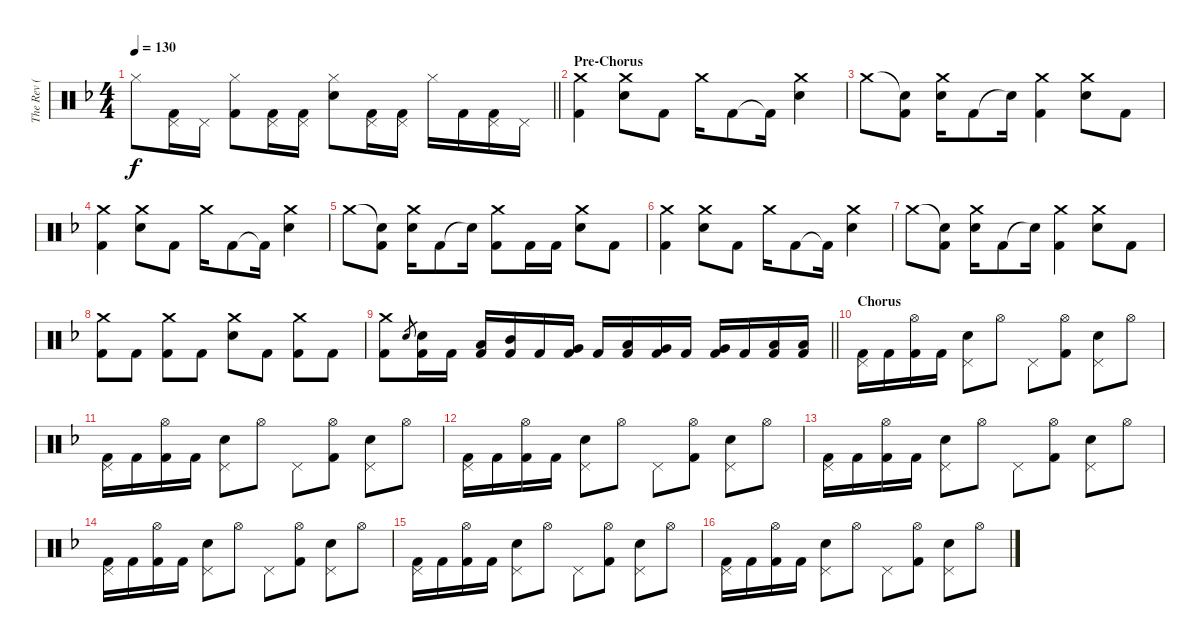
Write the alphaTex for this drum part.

\track ("The Rev ( Drums )" "The Rev ( ") {instrument percussion}
\staff {score}
\articulation defaults
\ts (4 4)
\tempo 130
\clef neutral
\barLineRight lightlight
\ks f "Hi-Hat (closed)".8{dy f}
("Pedal Hi-Hat (hit)" "Kick (hit) 2").16 "Pedal Hi-Hat (hit)".16 ("Hi-Hat (closed)" "Kick (hit) 2").8 ("Pedal Hi-Hat (hit)" "Kick (hit) 2").16 ("Pedal Hi-Hat (hit)" "Kick (hit) 2").16 ("Hi-Hat (closed)" "Snare (hit) 2").8 ("Pedal Hi-Hat (hit)" "Kick (hit) 2").16 ("Pedal Hi-Hat (hit)" "Kick (hit) 2").16 "Hi-Hat (closed)".16 "Kick (hit) 2".16 ("Pedal Hi-Hat (hit)" "Kick (hit) 2").16 "Pedal Hi-Hat (hit)".16 |
\section ("" "Pre-Chorus")
("Crash medium (hit)" "Kick (hit) 2").4 ("Crash medium (hit)" "Snare (hit) 2").8 "Kick (hit) 2".8 "Crash medium (hit)".16 "Kick (hit) 2".8 "Kick (hit) 2"{t}.16 ("Crash medium (hit)" "Snare (hit) 2").4 |
"Crash medium (hit)".8 ("Snare (hit)"{t} "Kick (hit) 2").8 ("Crash medium (hit)" "Snare (hit) 2").16 "Kick (hit) 2".8 "Snare (hit)"{t}.16 ("Crash medium (hit)" "Kick (hit) 2").4 ("Crash medium (hit)" "Snare (hit) 2").8 "Kick (hit) 2".8 |
("Crash medium (hit)" "Kick (hit) 2").4 ("Crash medium (hit)" "Snare (hit) 2").8 "Kick (hit) 2".8 "Crash medium (hit)".16 "Kick (hit) 2".8 "Kick (hit) 2"{t}.16 ("Crash medium (hit)" "Snare (hit) 2").4 |
"Crash medium (hit)".8 ("Snare (hit)"{t} "Kick (hit) 2").8 ("Crash medium (hit)" "Snare (hit) 2").16 "Kick (hit) 2".8 "Snare (hit)"{t}.16 ("Crash medium (hit)" "Kick (hit) 2").8 "Kick (hit) 2".16 "Kick (hit) 2".16 ("Crash medium (hit)" "Snare (hit) 2").8 "Kick (hit) 2".8 |
("Crash medium (hit)" "Kick (hit) 2").4 ("Crash medium (hit)" "Snare (hit) 2").8 "Kick (hit) 2".8 "Crash medium (hit)".16 "Kick (hit) 2".8 "Kick (hit) 2"{t}.16 ("Crash medium (hit)" "Snare (hit) 2").4 |
"Crash medium (hit)".8 ("Snare (hit)"{t} "Kick (hit) 2").8 ("Crash medium (hit)" "Snare (hit) 2").16 "Kick (hit) 2".8 "Snare (hit)"{t}.16 ("Crash medium (hit)" "Kick (hit) 2").4 ("Crash medium (hit)" "Snare (hit) 2").8 "Kick (hit) 2".8 |
("Crash medium (hit)" "Kick (hit) 2").8 "Kick (hit) 2".8 ("Crash medium (hit)" "Kick (hit) 2").8 "Kick (hit) 2".8 ("Crash medium (hit)" "Snare (hit) 2").8 "Kick (hit) 2".8 ("Crash medium (hit)" "Kick (hit) 2").8 "Kick (hit) 2".8 |
\barLineRight lightlight
("Crash medium (hit)" "Kick (hit) 2").8 "Snare (hit) 2".8{gr} ("Snare (hit) 2" "Kick (hit) 2").16 "Kick (hit) 2".16 ("Low Tom (hit)" "Kick (hit) 2").16 ("Mid Tom (hit)" "Kick (hit) 2").16 "Kick (hit) 2".16 ("Very Low Tom (hit)" "Kick (hit) 2").16 "Kick (hit) 2".16 ("Low Floor Tom (hit)" "Kick (hit) 2").16 ("Very Low Tom (hit)" "Kick (hit) 2").16 "Kick (hit) 2".16 ("Very Low Tom (hit)" "Kick (hit) 2").16 "Kick (hit) 2".16 ("Low Floor Tom (hit)" "Kick (hit) 2").16 ("Low Floor Tom (hit)" "Kick (hit) 2").16 |
\section ("" "Chorus")
("Pedal Hi-Hat (hit)" "Kick (hit) 2").16 "Kick (hit) 2".16 ("Hi-Hat (open)" "Kick (hit) 2").16 "Kick (hit) 2".16 ("Pedal Hi-Hat (hit)" "Snare (hit) 2").8 "Hi-Hat (open)".8 "Pedal Hi-Hat (hit)".8 ("Hi-Hat (open)" "Kick (hit) 2").8 ("Pedal Hi-Hat (hit)" "Snare (hit) 2").8 "Hi-Hat (open)".8 |
("Pedal Hi-Hat (hit)" "Kick (hit) 2").16 "Kick (hit) 2".16 ("Hi-Hat (open)" "Kick (hit) 2").16 "Kick (hit) 2".16 ("Pedal Hi-Hat (hit)" "Snare (hit) 2").8 "Hi-Hat (open)".8 "Pedal Hi-Hat (hit)".8 ("Hi-Hat (open)" "Kick (hit) 2").8 ("Pedal Hi-Hat (hit)" "Snare (hit) 2").8 "Hi-Hat (open)".8 |
("Pedal Hi-Hat (hit)" "Kick (hit) 2").16 "Kick (hit) 2".16 ("Hi-Hat (open)" "Kick (hit) 2").16 "Kick (hit) 2".16 ("Pedal Hi-Hat (hit)" "Snare (hit) 2").8 "Hi-Hat (open)".8 "Pedal Hi-Hat (hit)".8 ("Hi-Hat (open)" "Kick (hit) 2").8 ("Pedal Hi-Hat (hit)" "Snare (hit) 2").8 "Hi-Hat (open)".8 |
("Pedal Hi-Hat (hit)" "Kick (hit) 2").16 "Kick (hit) 2".16 ("Hi-Hat (open)" "Kick (hit) 2").16 "Kick (hit) 2".16 ("Pedal Hi-Hat (hit)" "Snare (hit) 2").8 "Hi-Hat (open)".8 "Pedal Hi-Hat (hit)".8 ("Hi-Hat (open)" "Kick (hit) 2").8 ("Pedal Hi-Hat (hit)" "Snare (hit) 2").8 "Hi-Hat (open)".8 |
("Pedal Hi-Hat (hit)" "Kick (hit) 2").16 "Kick (hit) 2".16 ("Hi-Hat (open)" "Kick (hit) 2").16 "Kick (hit) 2".16 ("Pedal Hi-Hat (hit)" "Snare (hit) 2").8 "Hi-Hat (open)".8 "Pedal Hi-Hat (hit)".8 ("Hi-Hat (open)" "Kick (hit) 2").8 ("Pedal Hi-Hat (hit)" "Snare (hit) 2").8 "Hi-Hat (open)".8 |
("Pedal Hi-Hat (hit)" "Kick (hit) 2").16 "Kick (hit) 2".16 ("Hi-Hat (open)" "Kick (hit) 2").16 "Kick (hit) 2".16 ("Pedal Hi-Hat (hit)" "Snare (hit) 2").8 "Hi-Hat (open)".8 "Pedal Hi-Hat (hit)".8 ("Hi-Hat (open)" "Kick (hit) 2").8 ("Pedal Hi-Hat (hit)" "Snare (hit) 2").8 "Hi-Hat (open)".8 |
("Pedal Hi-Hat (hit)" "Kick (hit) 2").16 "Kick (hit) 2".16 ("Hi-Hat (open)" "Kick (hit) 2").16 "Kick (hit) 2".16 ("Pedal Hi-Hat (hit)" "Snare (hit) 2").8 "Hi-Hat (open)".8 "Pedal Hi-Hat (hit)".8 ("Hi-Hat (open)" "Kick (hit) 2").8 ("Pedal Hi-Hat (hit)" "Snare (hit) 2").8 "Hi-Hat (open)".8
